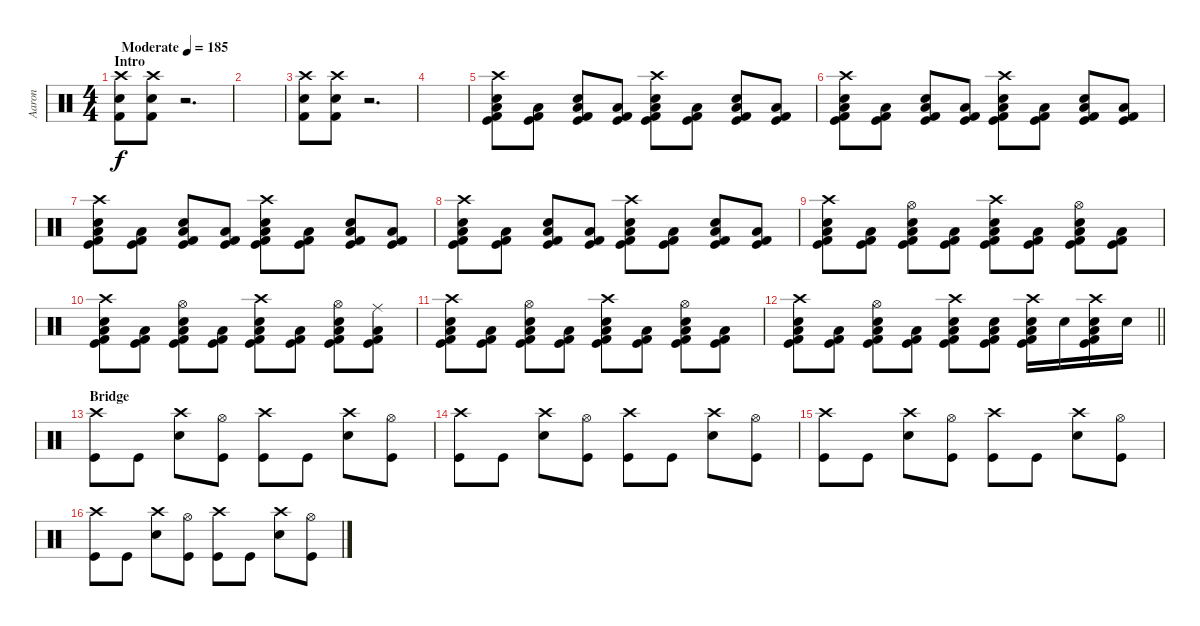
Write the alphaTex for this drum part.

\track ("Aaron" "Aaron") {instrument percussion}
\staff {score}
\articulation defaults
\ts (4 4)
\section ("" "Intro")
\tempo (185 "Moderate")
\clef neutral
\ks c
("Crash high (hit)" "Snare (hit) 2" "Kick (hit) 2").8{dy f} ("Crash high (hit)" "Snare (hit) 2" "Kick (hit) 2").8 r.2{d} |
|
("Crash high (hit)" "Snare (hit) 2" "Kick (hit) 2").8 ("Crash high (hit)" "Snare (hit) 2" "Kick (hit) 2").8 r.2{d} |
|
("Crash high (hit)" "Snare (hit) 2" "Low Floor Tom (hit)" "Kick (hit)" "Kick (hit) 2").8 ("Low Floor Tom (hit)" "Kick (hit)" "Kick (hit) 2").8 ("Snare (hit) 2" "Low Floor Tom (hit)" "Kick (hit)" "Kick (hit) 2").8 ("Low Floor Tom (hit)" "Kick (hit)" "Kick (hit) 2").8 ("Crash high (hit)" "Snare (hit) 2" "Low Floor Tom (hit)" "Kick (hit)" "Kick (hit) 2").8 ("Low Floor Tom (hit)" "Kick (hit)" "Kick (hit) 2").8 ("Snare (hit) 2" "Low Floor Tom (hit)" "Kick (hit)" "Kick (hit) 2").8 ("Low Floor Tom (hit)" "Kick (hit)" "Kick (hit) 2").8 |
("Crash high (hit)" "Snare (hit) 2" "Low Floor Tom (hit)" "Kick (hit)" "Kick (hit) 2").8 ("Low Floor Tom (hit)" "Kick (hit)" "Kick (hit) 2").8 ("Snare (hit) 2" "Low Floor Tom (hit)" "Kick (hit)" "Kick (hit) 2").8 ("Low Floor Tom (hit)" "Kick (hit)" "Kick (hit) 2").8 ("Crash high (hit)" "Snare (hit) 2" "Low Floor Tom (hit)" "Kick (hit)" "Kick (hit) 2").8 ("Low Floor Tom (hit)" "Kick (hit)" "Kick (hit) 2").8 ("Snare (hit) 2" "Low Floor Tom (hit)" "Kick (hit)" "Kick (hit) 2").8 ("Low Floor Tom (hit)" "Kick (hit)" "Kick (hit) 2").8 |
("Crash high (hit)" "Snare (hit) 2" "Low Floor Tom (hit)" "Kick (hit)" "Kick (hit) 2").8 ("Low Floor Tom (hit)" "Kick (hit)" "Kick (hit) 2").8 ("Snare (hit) 2" "Low Floor Tom (hit)" "Kick (hit)" "Kick (hit) 2").8 ("Low Floor Tom (hit)" "Kick (hit)" "Kick (hit) 2").8 ("Crash high (hit)" "Snare (hit) 2" "Low Floor Tom (hit)" "Kick (hit)" "Kick (hit) 2").8 ("Low Floor Tom (hit)" "Kick (hit)" "Kick (hit) 2").8 ("Snare (hit) 2" "Low Floor Tom (hit)" "Kick (hit)" "Kick (hit) 2").8 ("Low Floor Tom (hit)" "Kick (hit)" "Kick (hit) 2").8 |
("Crash high (hit)" "Snare (hit) 2" "Low Floor Tom (hit)" "Kick (hit)" "Kick (hit) 2").8 ("Low Floor Tom (hit)" "Kick (hit)" "Kick (hit) 2").8 ("Snare (hit) 2" "Low Floor Tom (hit)" "Kick (hit)" "Kick (hit) 2").8 ("Low Floor Tom (hit)" "Kick (hit)" "Kick (hit) 2").8 ("Crash high (hit)" "Snare (hit) 2" "Low Floor Tom (hit)" "Kick (hit)" "Kick (hit) 2").8 ("Low Floor Tom (hit)" "Kick (hit)" "Kick (hit) 2").8 ("Snare (hit) 2" "Low Floor Tom (hit)" "Kick (hit)" "Kick (hit) 2").8 ("Low Floor Tom (hit)" "Kick (hit)" "Kick (hit) 2").8 |
("Crash high (hit)" "Snare (hit) 2" "Low Floor Tom (hit)" "Kick (hit)" "Kick (hit) 2").8 ("Low Floor Tom (hit)" "Kick (hit)" "Kick (hit) 2").8 ("Hi-Hat (open)" "Snare (hit) 2" "Low Floor Tom (hit)" "Kick (hit)" "Kick (hit) 2").8 ("Low Floor Tom (hit)" "Kick (hit)" "Kick (hit) 2").8 ("Crash high (hit)" "Snare (hit) 2" "Low Floor Tom (hit)" "Kick (hit)" "Kick (hit) 2").8 ("Low Floor Tom (hit)" "Kick (hit)" "Kick (hit) 2").8 ("Hi-Hat (open)" "Snare (hit) 2" "Low Floor Tom (hit)" "Kick (hit)" "Kick (hit) 2").8 ("Low Floor Tom (hit)" "Kick (hit)" "Kick (hit) 2").8 |
("Crash high (hit)" "Snare (hit) 2" "Low Floor Tom (hit)" "Kick (hit)" "Kick (hit) 2").8 ("Low Floor Tom (hit)" "Kick (hit)" "Kick (hit) 2").8 ("Hi-Hat (open)" "Snare (hit) 2" "Low Floor Tom (hit)" "Kick (hit)" "Kick (hit) 2").8 ("Low Floor Tom (hit)" "Kick (hit)" "Kick (hit) 2").8 ("Crash high (hit)" "Snare (hit) 2" "Low Floor Tom (hit)" "Kick (hit)" "Kick (hit) 2").8 ("Low Floor Tom (hit)" "Kick (hit)" "Kick (hit) 2").8 ("Hi-Hat (open)" "Snare (hit) 2" "Low Floor Tom (hit)" "Kick (hit)" "Kick (hit) 2").8 ("Ride (middle)" "Low Floor Tom (hit)" "Kick (hit)" "Kick (hit) 2").8 |
("Crash high (hit)" "Snare (hit) 2" "Low Floor Tom (hit)" "Kick (hit)" "Kick (hit) 2").8 ("Low Floor Tom (hit)" "Kick (hit)" "Kick (hit) 2").8 ("Hi-Hat (open)" "Snare (hit) 2" "Low Floor Tom (hit)" "Kick (hit)" "Kick (hit) 2").8 ("Low Floor Tom (hit)" "Kick (hit)" "Kick (hit) 2").8 ("Crash high (hit)" "Snare (hit) 2" "Low Floor Tom (hit)" "Kick (hit)" "Kick (hit) 2").8 ("Low Floor Tom (hit)" "Kick (hit)" "Kick (hit) 2").8 ("Hi-Hat (open)" "Snare (hit) 2" "Low Floor Tom (hit)" "Kick (hit)" "Kick (hit) 2").8 ("Low Floor Tom (hit)" "Kick (hit)" "Kick (hit) 2").8 |
\barLineRight lightlight
("Crash high (hit)" "Snare (hit) 2" "Low Floor Tom (hit)" "Kick (hit)" "Kick (hit) 2").8 ("Low Floor Tom (hit)" "Kick (hit)" "Kick (hit) 2").8 ("Hi-Hat (open)" "Snare (hit) 2" "Low Floor Tom (hit)" "Kick (hit)" "Kick (hit) 2").8 ("Low Floor Tom (hit)" "Kick (hit)" "Kick (hit) 2").8 ("Crash high (hit)" "Snare (hit) 2" "Low Floor Tom (hit)" "Kick (hit)" "Kick (hit) 2").8 ("Snare (hit) 2" "Low Floor Tom (hit)" "Kick (hit)" "Kick (hit) 2").8 ("Crash high (hit)" "Snare (hit) 2" "Low Floor Tom (hit)" "Kick (hit)" "Kick (hit) 2").16 "Snare (hit) 2".16 ("Crash high (hit)" "Snare (hit) 2" "Low Floor Tom (hit)" "Kick (hit)" "Kick (hit) 2").16 "Snare (hit) 2".16 |
\section ("" "Bridge")
("Crash high (hit)" "Kick (hit)").8 "Kick (hit)".8 ("Crash high (hit)" "Snare (hit) 2").8 ("Hi-Hat (open)" "Kick (hit)").8 ("Crash high (hit)" "Kick (hit)").8 "Kick (hit)".8 ("Crash high (hit)" "Snare (hit) 2").8 ("Hi-Hat (open)" "Kick (hit)").8 |
("Crash high (hit)" "Kick (hit)").8 "Kick (hit)".8 ("Crash high (hit)" "Snare (hit) 2").8 ("Hi-Hat (open)" "Kick (hit)").8 ("Crash high (hit)" "Kick (hit)").8 "Kick (hit)".8 ("Crash high (hit)" "Snare (hit) 2").8 ("Hi-Hat (open)" "Kick (hit)").8 |
("Crash high (hit)" "Kick (hit)").8 "Kick (hit)".8 ("Crash high (hit)" "Snare (hit) 2").8 ("Hi-Hat (open)" "Kick (hit)").8 ("Crash high (hit)" "Kick (hit)").8 "Kick (hit)".8 ("Crash high (hit)" "Snare (hit) 2").8 ("Hi-Hat (open)" "Kick (hit)").8 |
("Crash high (hit)" "Kick (hit)").8 "Kick (hit)".8 ("Crash high (hit)" "Snare (hit) 2").8 ("Hi-Hat (open)" "Kick (hit)").8 ("Crash high (hit)" "Kick (hit)").8 "Kick (hit)".8 ("Crash high (hit)" "Snare (hit) 2").8 ("Hi-Hat (open)" "Kick (hit)").8
